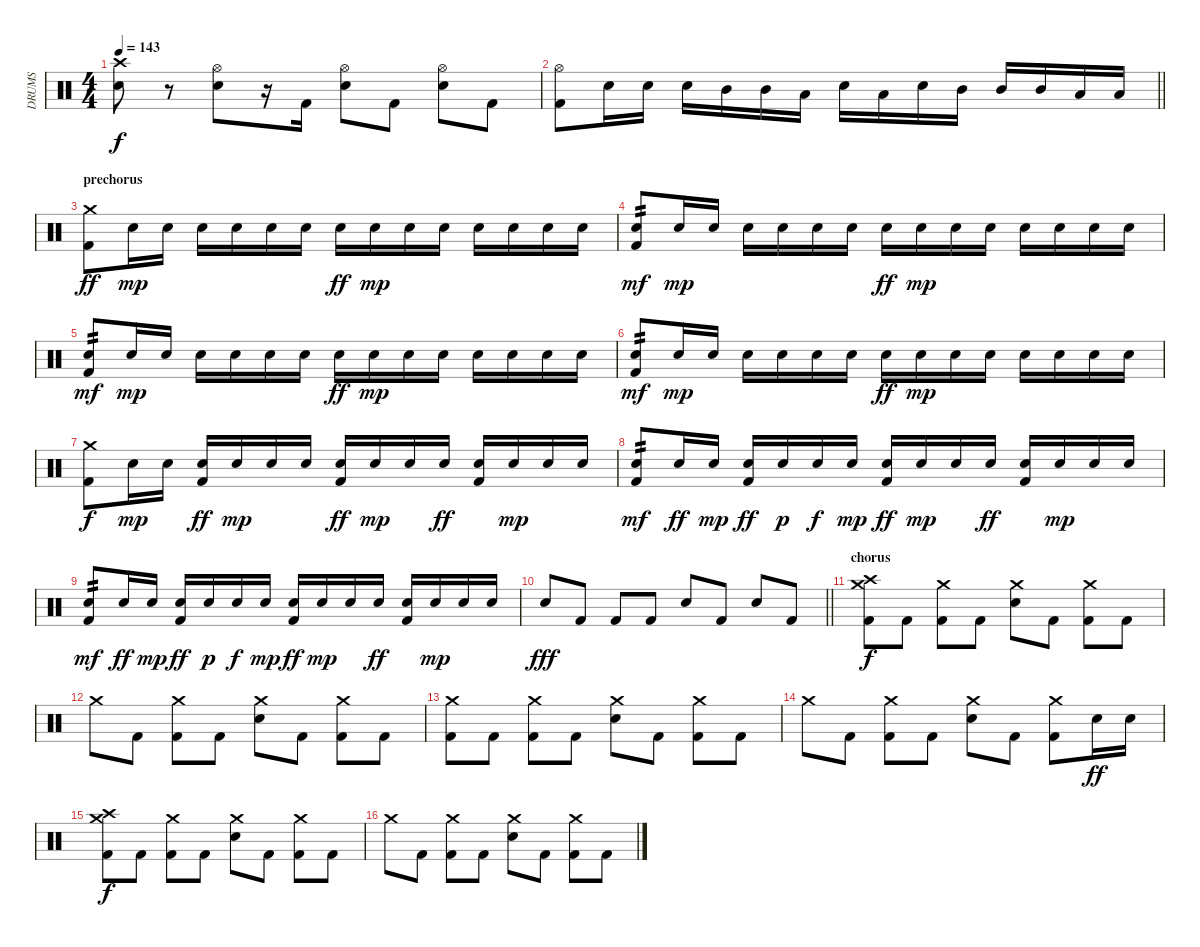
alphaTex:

\track ("DRUMS" "DRUMS") {instrument percussion}
\staff {score}
\articulation defaults
\ts (4 4)
\tempo 143
\clef neutral
\ks c
("Crash high (hit)" "Electric Snare (hit)").8{dy f} r.8 ("Hi-Hat (open)" "Electric Snare (hit)").8 r.16 "Kick (hit) 2".16 ("Hi-Hat (open)" "Electric Snare (hit)").8 "Kick (hit) 2".8 ("Hi-Hat (open)" "Electric Snare (hit)").8 "Kick (hit) 2".8 |
\barLineRight lightlight
("Hi-Hat (open)" "Kick (hit) 2").8 "Electric Snare (hit)".16 "Electric Snare (hit)".16 "Electric Snare (hit)".16 "Mid Tom (hit)".16 "Mid Tom (hit)".16 "Low Tom (hit)".16 "Electric Snare (hit)".16 "Low Tom (hit)".16 "Electric Snare (hit)".16 "Mid Tom (hit)".16 "Mid Tom (hit)".16 "Mid Tom (hit)".16 "Low Tom (hit)".16 "Low Tom (hit)".16 |
\section ("" "prechorus")
("Crash medium (hit)" "Kick (hit) 2").8{dy ff} "Electric Snare (hit)".16{dy mp} "Electric Snare (hit)".16 "Electric Snare (hit)".16 "Electric Snare (hit)".16 "Electric Snare (hit)".16 "Electric Snare (hit)".16 "Electric Snare (hit)".16{dy ff} "Electric Snare (hit)".16{dy mp} "Electric Snare (hit)".16 "Electric Snare (hit)".16 "Electric Snare (hit)".16 "Electric Snare (hit)".16 "Electric Snare (hit)".16 "Electric Snare (hit)".16 |
("Electric Snare (hit)" "Kick (hit) 2").8{tp 2 dy mf} "Electric Snare (hit)".16{dy mp} "Electric Snare (hit)".16 "Electric Snare (hit)".16 "Electric Snare (hit)".16 "Electric Snare (hit)".16 "Electric Snare (hit)".16 "Electric Snare (hit)".16{dy ff} "Electric Snare (hit)".16{dy mp} "Electric Snare (hit)".16 "Electric Snare (hit)".16 "Electric Snare (hit)".16 "Electric Snare (hit)".16 "Electric Snare (hit)".16 "Electric Snare (hit)".16 |
("Electric Snare (hit)" "Kick (hit) 2").8{tp 2 dy mf} "Electric Snare (hit)".16{dy mp} "Electric Snare (hit)".16 "Electric Snare (hit)".16 "Electric Snare (hit)".16 "Electric Snare (hit)".16 "Electric Snare (hit)".16 "Electric Snare (hit)".16{dy ff} "Electric Snare (hit)".16{dy mp} "Electric Snare (hit)".16 "Electric Snare (hit)".16 "Electric Snare (hit)".16 "Electric Snare (hit)".16 "Electric Snare (hit)".16 "Electric Snare (hit)".16 |
("Electric Snare (hit)" "Kick (hit) 2").8{tp 2 dy mf} "Electric Snare (hit)".16{dy mp} "Electric Snare (hit)".16 "Electric Snare (hit)".16 "Electric Snare (hit)".16 "Electric Snare (hit)".16 "Electric Snare (hit)".16 "Electric Snare (hit)".16{dy ff} "Electric Snare (hit)".16{dy mp} "Electric Snare (hit)".16 "Electric Snare (hit)".16 "Electric Snare (hit)".16 "Electric Snare (hit)".16 "Electric Snare (hit)".16 "Electric Snare (hit)".16 |
("Crash medium (hit)" "Kick (hit) 2").8{dy f} "Electric Snare (hit)".16{dy mp} "Electric Snare (hit)".16 ("Electric Snare (hit)" "Kick (hit) 2").16{dy ff} "Electric Snare (hit)".16{dy mp} "Electric Snare (hit)".16 "Electric Snare (hit)".16 ("Electric Snare (hit)" "Kick (hit) 2").16{dy ff} "Electric Snare (hit)".16{dy mp} "Electric Snare (hit)".16 "Electric Snare (hit)".16{dy ff} ("Electric Snare (hit)" "Kick (hit) 2").16 "Electric Snare (hit)".16{dy mp} "Electric Snare (hit)".16 "Electric Snare (hit)".16 |
("Electric Snare (hit)" "Kick (hit) 2").8{tp 2 dy mf} "Electric Snare (hit)".16{dy ff} "Electric Snare (hit)".16{dy mp} ("Electric Snare (hit)" "Kick (hit) 2").16{dy ff} "Electric Snare (hit)".16{dy p} "Electric Snare (hit)".16{dy f} "Electric Snare (hit)".16{dy mp} ("Electric Snare (hit)" "Kick (hit) 2").16{dy ff} "Electric Snare (hit)".16{dy mp} "Electric Snare (hit)".16 "Electric Snare (hit)".16{dy ff} ("Electric Snare (hit)" "Kick (hit) 2").16 "Electric Snare (hit)".16{dy mp} "Electric Snare (hit)".16 "Electric Snare (hit)".16 |
("Electric Snare (hit)" "Kick (hit) 2").8{tp 2 dy mf} "Electric Snare (hit)".16{dy ff} "Electric Snare (hit)".16{dy mp} ("Electric Snare (hit)" "Kick (hit) 2").16{dy ff} "Electric Snare (hit)".16{dy p} "Electric Snare (hit)".16{dy f} "Electric Snare (hit)".16{dy mp} ("Electric Snare (hit)" "Kick (hit) 2").16{dy ff} "Electric Snare (hit)".16{dy mp} "Electric Snare (hit)".16 "Electric Snare (hit)".16{dy ff} ("Electric Snare (hit)" "Kick (hit) 2").16 "Electric Snare (hit)".16{dy mp} "Electric Snare (hit)".16 "Electric Snare (hit)".16 |
\barLineRight lightlight "Electric Snare (hit)".8{dy fff} "Kick (hit) 2".8 "Kick (hit) 2".8 "Kick (hit) 2".8 "Electric Snare (hit)".8 "Kick (hit) 2".8 "Electric Snare (hit)".8 "Kick (hit) 2".8
|
\section ("" "chorus")
("Crash medium (hit)" "Crash high (hit)" "Kick (hit) 2").8{dy f} "Kick (hit) 2".8 ("Crash medium (hit)" "Kick (hit) 2").8 "Kick (hit) 2".8 ("Crash medium (hit)" "Electric Snare (hit)").8 "Kick (hit) 2".8 ("Crash medium (hit)" "Kick (hit) 2").8 "Kick (hit) 2".8 |
"Crash medium (hit)".8 "Kick (hit) 2".8 ("Crash medium (hit)" "Kick (hit) 2").8 "Kick (hit) 2".8 ("Crash medium (hit)" "Electric Snare (hit)").8 "Kick (hit) 2".8 ("Crash medium (hit)" "Kick (hit) 2").8 "Kick (hit) 2".8 |
("Crash medium (hit)" "Kick (hit) 2").8 "Kick (hit) 2".8 ("Crash medium (hit)" "Kick (hit) 2").8 "Kick (hit) 2".8 ("Crash medium (hit)" "Electric Snare (hit)").8 "Kick (hit) 2".8 ("Crash medium (hit)" "Kick (hit) 2").8 "Kick (hit) 2".8 |
"Crash medium (hit)".8 "Kick (hit) 2".8 ("Crash medium (hit)" "Kick (hit) 2").8 "Kick (hit) 2".8 ("Crash medium (hit)" "Electric Snare (hit)").8 "Kick (hit) 2".8 ("Crash medium (hit)" "Kick (hit) 2").8 "Electric Snare (hit)".16{dy ff} "Electric Snare (hit)".16 |
("Crash medium (hit)" "Crash high (hit)" "Kick (hit) 2").8{dy f} "Kick (hit) 2".8 ("Crash medium (hit)" "Kick (hit) 2").8 "Kick (hit) 2".8 ("Crash medium (hit)" "Electric Snare (hit)").8 "Kick (hit) 2".8 ("Crash medium (hit)" "Kick (hit) 2").8 "Kick (hit) 2".8 |
"Crash medium (hit)".8 "Kick (hit) 2".8 ("Crash medium (hit)" "Kick (hit) 2").8 "Kick (hit) 2".8 ("Crash medium (hit)" "Electric Snare (hit)").8 "Kick (hit) 2".8 ("Crash medium (hit)" "Kick (hit) 2").8 "Kick (hit) 2".8
